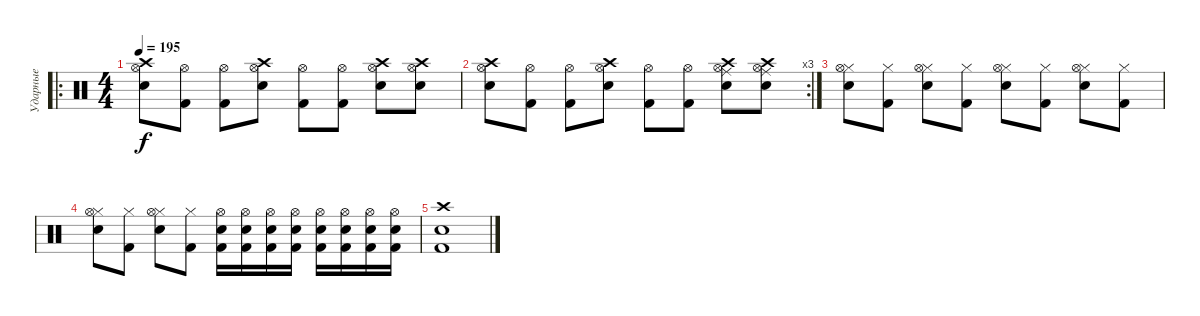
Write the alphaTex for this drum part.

\track ("Ударные" "Ударные") {instrument percussion}
\staff {score}
\articulation defaults
\ro
\ts (4 4)
\tempo 195
\clef neutral
\ks c
("Hi-Hat (open)" "Snare (hit) 2" "Crash high (hit)").8{dy f} ("Hi-Hat (open)" "Kick (hit) 2").8 ("Hi-Hat (open)" "Kick (hit) 2").8 ("Hi-Hat (open)" "Snare (hit) 2" "Crash high (hit)").8 ("Hi-Hat (open)" "Kick (hit) 2").8 ("Hi-Hat (open)" "Kick (hit) 2").8 ("Hi-Hat (open)" "Snare (hit) 2" "Crash high (hit)").8 ("Hi-Hat (open)" "Snare (hit) 2" "Crash high (hit)").8 |
\rc 3
("Hi-Hat (open)" "Snare (hit) 2" "Crash high (hit)").8 ("Hi-Hat (open)" "Kick (hit) 2").8 ("Hi-Hat (open)" "Kick (hit) 2").8 ("Hi-Hat (open)" "Snare (hit) 2" "Crash high (hit)").8 ("Hi-Hat (open)" "Kick (hit) 2").8 ("Hi-Hat (open)" "Kick (hit) 2").8 ("Hi-Hat (open)" "Snare (hit) 2" "Crash high (hit)" "Ride (middle)").8 ("Hi-Hat (open)" "Snare (hit) 2" "Crash high (hit)" "Ride (middle)").8 |
("Hi-Hat (closed)" "Snare (hit) 2" "Hi-Hat (open)").8 ("Hi-Hat (closed)" "Kick (hit) 2").8 ("Hi-Hat (closed)" "Snare (hit) 2" "Hi-Hat (open)").8 ("Hi-Hat (closed)" "Kick (hit) 2").8 ("Hi-Hat (closed)" "Snare (hit) 2" "Hi-Hat (open)").8 ("Hi-Hat (closed)" "Kick (hit) 2").8 ("Hi-Hat (closed)" "Snare (hit) 2" "Hi-Hat (open)").8 ("Hi-Hat (closed)" "Kick (hit) 2").8 |
("Hi-Hat (closed)" "Snare (hit) 2" "Hi-Hat (open)").8 ("Hi-Hat (closed)" "Kick (hit) 2").8 ("Hi-Hat (closed)" "Snare (hit) 2" "Hi-Hat (open)").8 ("Hi-Hat (closed)" "Kick (hit) 2").8 ("Kick (hit) 2" "Snare (hit) 2" "Hi-Hat (open)").16 ("Kick (hit) 2" "Snare (hit) 2" "Hi-Hat (open)").16 ("Kick (hit) 2" "Snare (hit) 2" "Hi-Hat (open)").16 ("Kick (hit) 2" "Snare (hit) 2" "Hi-Hat (open)").16 ("Kick (hit) 2" "Snare (hit) 2" "Hi-Hat (open)").16 ("Kick (hit) 2" "Snare (hit) 2" "Hi-Hat (open)").16 ("Kick (hit) 2" "Snare (hit) 2" "Hi-Hat (open)").16 ("Kick (hit) 2" "Snare (hit) 2" "Hi-Hat (open)").16 |
("Kick (hit) 2" "Snare (hit) 2" "Crash high (hit)").1
